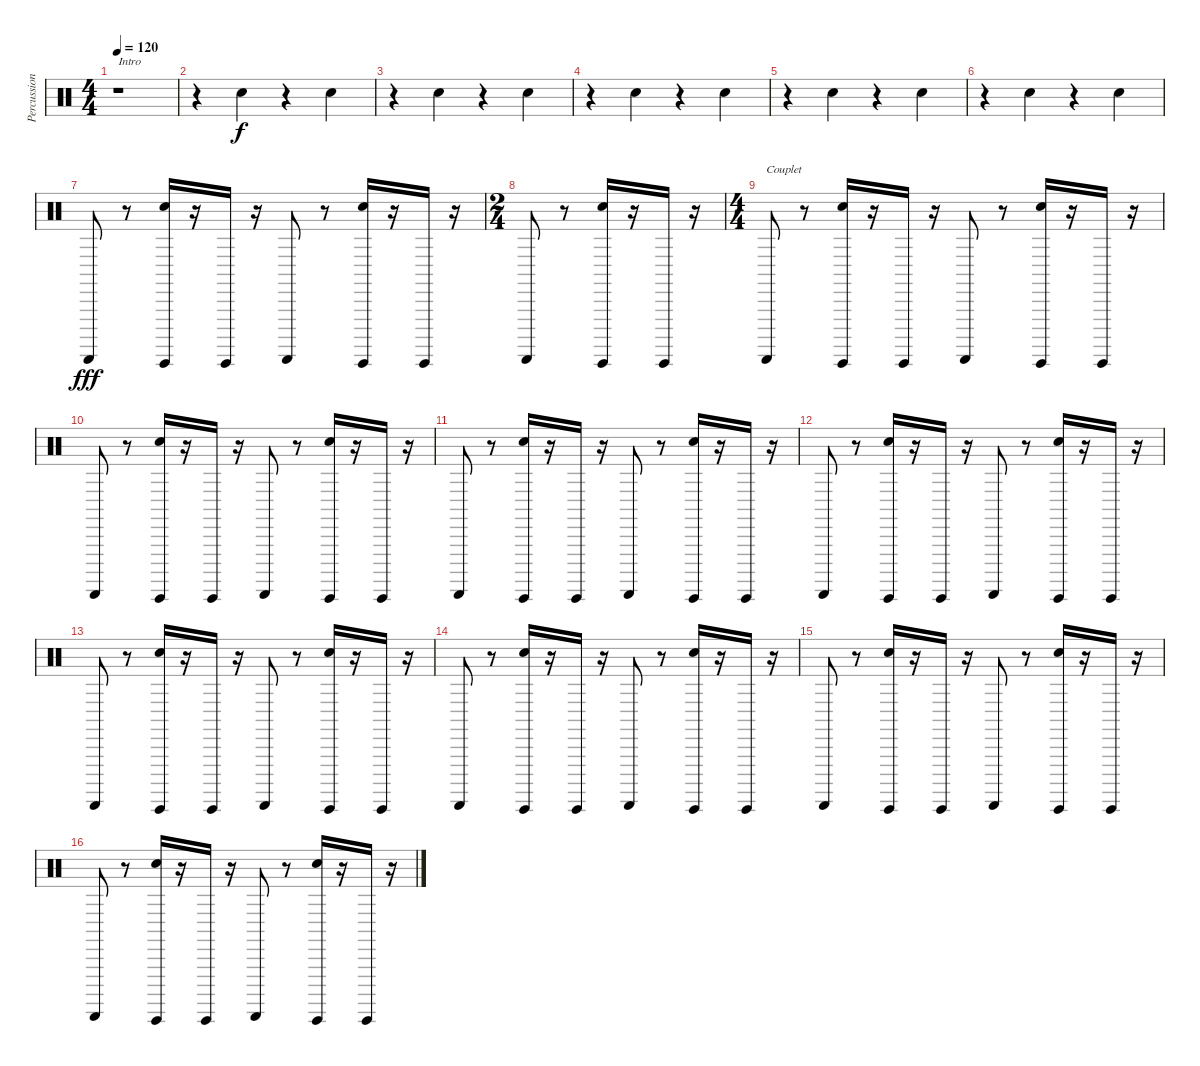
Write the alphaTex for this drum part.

\track ("Percussions" "Percussion") {instrument percussion}
\staff {score}
\articulation defaults
\ts (4 4)
\tempo 120
\clef neutral
\ks c
r.1{txt "Intro" dy f} |
r.4 "Hand Clap (hit)".4 r.4 "Hand Clap (hit)".4 |
r.4 "Hand Clap (hit)".4 r.4 "Hand Clap (hit)".4 |
r.4 "Hand Clap (hit)".4 r.4 "Hand Clap (hit)".4 |
r.4 "Hand Clap (hit)".4 r.4 "Hand Clap (hit)".4 |
r.4 "Hand Clap (hit)".4 r.4 "Hand Clap (hit)".4 |
"Guiro (scrap-return)".8{dy fff} r.8 ("Guiro (hit)" "Hand Clap (hit)").16 r.16 "Guiro (hit)".16 r.16 "Guiro (scrap-return)".8 r.8 ("Guiro (hit)" "Hand Clap (hit)").16 r.16 "Guiro (hit)".16 r.16 |
\ts (2 4)
"Guiro (scrap-return)".8 r.8 ("Guiro (hit)" "Hand Clap (hit)").16 r.16 "Guiro (hit)".16 r.16 |
\ts (4 4)
"Guiro (scrap-return)".8{txt "Couplet"} r.8 ("Guiro (hit)" "Hand Clap (hit)").16 r.16 "Guiro (hit)".16 r.16 "Guiro (scrap-return)".8 r.8 ("Guiro (hit)" "Hand Clap (hit)").16 r.16 "Guiro (hit)".16 r.16 |
"Guiro (scrap-return)".8 r.8 ("Guiro (hit)" "Hand Clap (hit)").16 r.16 "Guiro (hit)".16 r.16 "Guiro (scrap-return)".8 r.8 ("Guiro (hit)" "Hand Clap (hit)").16 r.16 "Guiro (hit)".16 r.16 |
"Guiro (scrap-return)".8 r.8 ("Guiro (hit)" "Hand Clap (hit)").16 r.16 "Guiro (hit)".16 r.16 "Guiro (scrap-return)".8 r.8 ("Guiro (hit)" "Hand Clap (hit)").16 r.16 "Guiro (hit)".16 r.16 |
"Guiro (scrap-return)".8 r.8 ("Guiro (hit)" "Hand Clap (hit)").16 r.16 "Guiro (hit)".16 r.16 "Guiro (scrap-return)".8 r.8 ("Guiro (hit)" "Hand Clap (hit)").16 r.16 "Guiro (hit)".16 r.16 |
"Guiro (scrap-return)".8 r.8 ("Guiro (hit)" "Hand Clap (hit)").16 r.16 "Guiro (hit)".16 r.16 "Guiro (scrap-return)".8 r.8 ("Guiro (hit)" "Hand Clap (hit)").16 r.16 "Guiro (hit)".16 r.16 |
"Guiro (scrap-return)".8 r.8 ("Guiro (hit)" "Hand Clap (hit)").16 r.16 "Guiro (hit)".16 r.16 "Guiro (scrap-return)".8 r.8 ("Guiro (hit)" "Hand Clap (hit)").16 r.16 "Guiro (hit)".16 r.16 |
"Guiro (scrap-return)".8 r.8 ("Guiro (hit)" "Hand Clap (hit)").16 r.16 "Guiro (hit)".16 r.16 "Guiro (scrap-return)".8 r.8 ("Guiro (hit)" "Hand Clap (hit)").16 r.16 "Guiro (hit)".16 r.16 |
"Guiro (scrap-return)".8 r.8 ("Guiro (hit)" "Hand Clap (hit)").16 r.16 "Guiro (hit)".16 r.16 "Guiro (scrap-return)".8 r.8 ("Guiro (hit)" "Hand Clap (hit)").16 r.16 "Guiro (hit)".16 r.16
